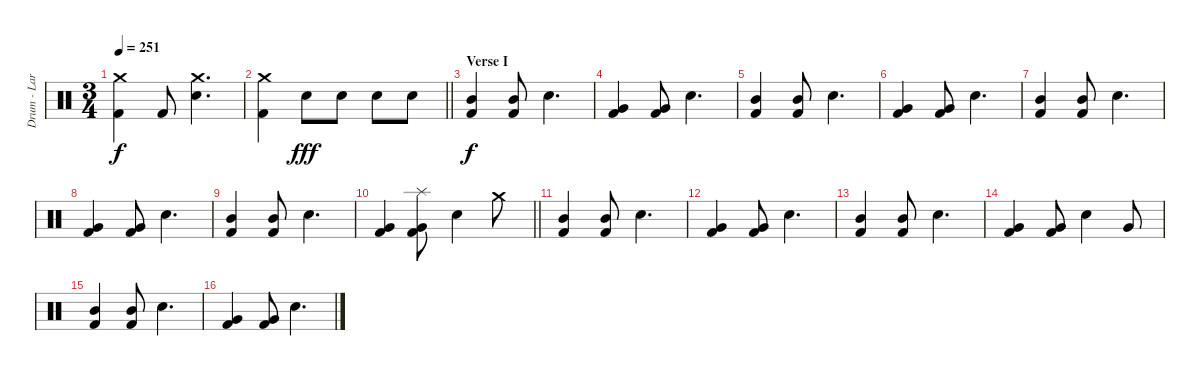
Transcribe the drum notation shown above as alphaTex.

\track ("Drum - Larzon" "Drum - Lar") {instrument percussion}
\staff {score}
\articulation defaults
\ts (3 4)
\tempo 251
\clef neutral
\ks c
("Kick (hit) 2" "Crash medium (hit)").4{dy f} "Kick (hit) 2".8 ("Snare (hit) 2" "Crash medium (hit)").4{d} |
\barLineRight lightlight
("Kick (hit) 2" "Crash medium (hit)").4 "Electric Snare (hit)".8{dy fff} "Electric Snare (hit)".8 "Electric Snare (hit)".8 "Electric Snare (hit)".8 |
\section ("" "Verse I")
("Kick (hit) 2" "Mid Tom (hit)").4{dy f} ("Kick (hit) 2" "Mid Tom (hit)").8 "Snare (hit) 2".4{d} |
("Kick (hit) 2" "Very Low Tom (hit)").4 ("Kick (hit) 2" "Very Low Tom (hit)").8 "Snare (hit) 2".4{d} |
("Kick (hit) 2" "Mid Tom (hit)").4 ("Kick (hit) 2" "Mid Tom (hit)").8 "Snare (hit) 2".4{d} |
("Kick (hit) 2" "Very Low Tom (hit)").4 ("Kick (hit) 2" "Very Low Tom (hit)").8 "Snare (hit) 2".4{d} |
("Kick (hit) 2" "Mid Tom (hit)").4 ("Kick (hit) 2" "Mid Tom (hit)").8 "Snare (hit) 2".4{d} |
("Kick (hit) 2" "Very Low Tom (hit)").4 ("Kick (hit) 2" "Very Low Tom (hit)").8 "Snare (hit) 2".4{d} |
("Kick (hit) 2" "Mid Tom (hit)").4 ("Kick (hit) 2" "Mid Tom (hit)").8 "Snare (hit) 2".4{d} |
\barLineRight lightlight
("Kick (hit) 2" "Very Low Tom (hit)").4 ("Kick (hit) 2" "Very Low Tom (hit)" "Splash (hit)").8 "Snare (hit) 2".4 "Crash medium (hit)".8 |
("Kick (hit) 2" "Mid Tom (hit)").4 ("Kick (hit) 2" "Mid Tom (hit)").8 "Snare (hit) 2".4{d} |
("Kick (hit) 2" "Very Low Tom (hit)").4 ("Kick (hit) 2" "Very Low Tom (hit)").8 "Snare (hit) 2".4{d} |
("Kick (hit) 2" "Mid Tom (hit)").4 ("Kick (hit) 2" "Mid Tom (hit)").8 "Snare (hit) 2".4{d} |
("Kick (hit) 2" "Very Low Tom (hit)").4 ("Kick (hit) 2" "Very Low Tom (hit)").8 "Snare (hit) 2".4 "Very Low Tom (hit)".8 |
("Kick (hit) 2" "Mid Tom (hit)").4 ("Kick (hit) 2" "Mid Tom (hit)").8 "Snare (hit) 2".4{d} |
("Kick (hit) 2" "Very Low Tom (hit)").4 ("Kick (hit) 2" "Very Low Tom (hit)").8 "Snare (hit) 2".4{d}
